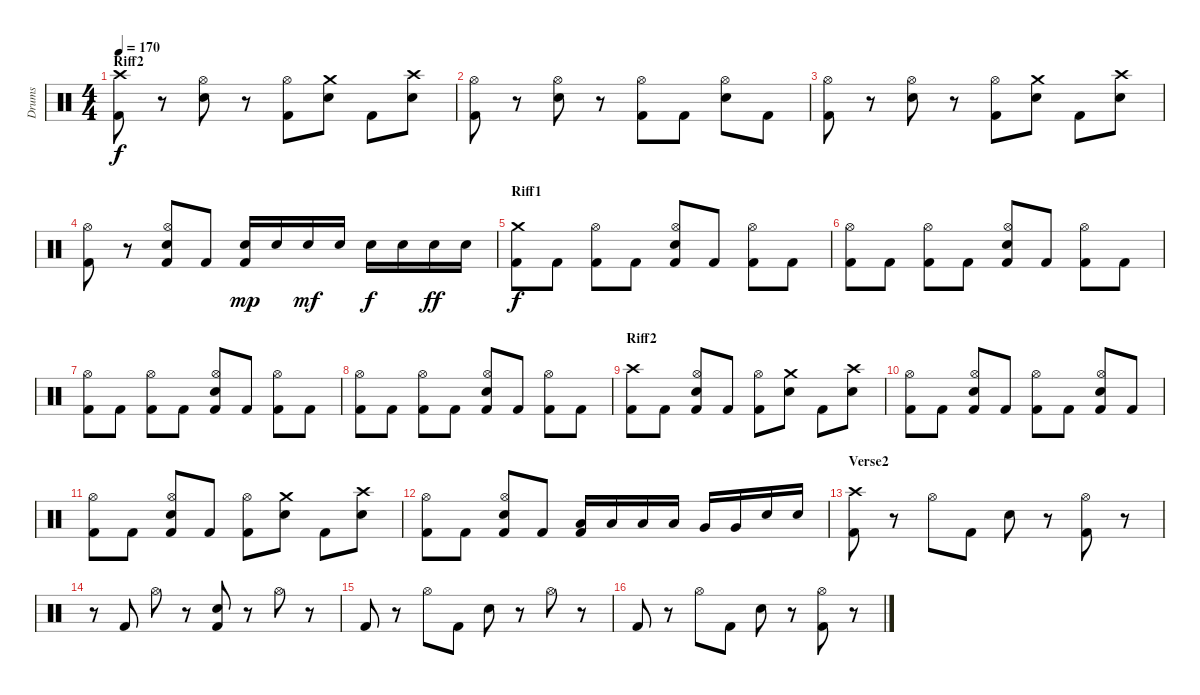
\track ("Drums" "Drums") {instrument percussion}
\staff {score}
\articulation defaults
\ts (4 4)
\section ("" "Riff2")
\tempo 170
\clef neutral
\ks c
("Kick (hit) 2" "Crash high (hit)").8{dy f} r.8 ("Hi-Hat (open)" "Electric Snare (hit)").8 r.8 ("Kick (hit) 2" "Hi-Hat (open)").8 ("Electric Snare (hit)" "Crash medium (hit)").8 "Kick (hit) 2".8 ("Electric Snare (hit)" "Crash high (hit)").8 |
("Kick (hit) 2" "Hi-Hat (open)").8 r.8 ("Hi-Hat (open)" "Electric Snare (hit)").8 r.8 ("Kick (hit) 2" "Hi-Hat (open)").8 "Kick (hit) 2".8 ("Hi-Hat (open)" "Electric Snare (hit)").8 "Kick (hit) 2".8 |
("Kick (hit) 2" "Hi-Hat (open)").8 r.8 ("Hi-Hat (open)" "Electric Snare (hit)").8 r.8 ("Kick (hit) 2" "Hi-Hat (open)").8 ("Electric Snare (hit)" "Crash medium (hit)").8 "Kick (hit) 2".8 ("Electric Snare (hit)" "Crash high (hit)").8 |
("Kick (hit) 2" "Hi-Hat (open)").8 r.8 ("Kick (hit) 2" "Hi-Hat (open)" "Electric Snare (hit)").8 "Kick (hit) 2".8 ("Kick (hit) 2" "Electric Snare (hit)").16{dy mp} "Electric Snare (hit)".16 "Electric Snare (hit)".16{dy mf} "Electric Snare (hit)".16 "Electric Snare (hit)".16{dy f} "Electric Snare (hit)".16 "Electric Snare (hit)".16{dy ff} "Electric Snare (hit)".16 |
\section ("" "Riff1")
("Kick (hit) 2" "Crash medium (hit)").8{dy f} "Kick (hit) 2".8 ("Kick (hit) 2" "Hi-Hat (open)").8 "Kick (hit) 2".8 ("Kick (hit) 2" "Hi-Hat (open)" "Electric Snare (hit)").8 "Kick (hit) 2".8 ("Kick (hit) 2" "Hi-Hat (open)").8 "Kick (hit) 2".8 |
("Kick (hit) 2" "Hi-Hat (open)").8 "Kick (hit) 2".8 ("Kick (hit) 2" "Hi-Hat (open)").8 "Kick (hit) 2".8 ("Kick (hit) 2" "Hi-Hat (open)" "Electric Snare (hit)").8 "Kick (hit) 2".8 ("Kick (hit) 2" "Hi-Hat (open)").8 "Kick (hit) 2".8 |
("Kick (hit) 2" "Hi-Hat (open)").8 "Kick (hit) 2".8 ("Kick (hit) 2" "Hi-Hat (open)").8 "Kick (hit) 2".8 ("Kick (hit) 2" "Hi-Hat (open)" "Electric Snare (hit)").8 "Kick (hit) 2".8 ("Kick (hit) 2" "Hi-Hat (open)").8 "Kick (hit) 2".8 |
("Kick (hit) 2" "Hi-Hat (open)").8 "Kick (hit) 2".8 ("Kick (hit) 2" "Hi-Hat (open)").8 "Kick (hit) 2".8 ("Kick (hit) 2" "Hi-Hat (open)" "Electric Snare (hit)").8 "Kick (hit) 2".8 ("Kick (hit) 2" "Hi-Hat (open)").8 "Kick (hit) 2".8 |
\section ("" "Riff2")
("Kick (hit) 2" "Crash high (hit)").8 "Kick (hit) 2".8 ("Kick (hit) 2" "Hi-Hat (open)" "Electric Snare (hit)").8 "Kick (hit) 2".8 ("Kick (hit) 2" "Hi-Hat (open)").8 ("Electric Snare (hit)" "Crash medium (hit)").8 "Kick (hit) 2".8 ("Electric Snare (hit)" "Crash high (hit)").8 |
("Kick (hit) 2" "Hi-Hat (open)").8 "Kick (hit) 2".8 ("Kick (hit) 2" "Hi-Hat (open)" "Electric Snare (hit)").8 "Kick (hit) 2".8 ("Kick (hit) 2" "Hi-Hat (open)").8 "Kick (hit) 2".8 ("Kick (hit) 2" "Hi-Hat (open)" "Electric Snare (hit)").8 "Kick (hit) 2".8 |
("Kick (hit) 2" "Hi-Hat (open)").8 "Kick (hit) 2".8 ("Kick (hit) 2" "Hi-Hat (open)" "Electric Snare (hit)").8 "Kick (hit) 2".8 ("Kick (hit) 2" "Hi-Hat (open)").8 ("Electric Snare (hit)" "Crash medium (hit)").8 "Kick (hit) 2".8 ("Electric Snare (hit)" "Crash high (hit)").8 |
("Kick (hit) 2" "Hi-Hat (open)").8 "Kick (hit) 2".8 ("Kick (hit) 2" "Hi-Hat (open)" "Electric Snare (hit)").8 "Kick (hit) 2".8 ("Kick (hit) 2" "Low Tom (hit)").16 "Low Tom (hit)".16 "Low Tom (hit)".16 "Low Tom (hit)".16 "Very Low Tom (hit)".16 "Very Low Tom (hit)".16 "Electric Snare (hit)".16 "Electric Snare (hit)".16 |
\section ("" "Verse2")
("Kick (hit) 2" "Crash high (hit)").8 r.8 "Hi-Hat (open)".8 "Kick (hit) 2".8 "Electric Snare (hit)".8 r.8 ("Kick (hit) 2" "Hi-Hat (open)").8 r.8 |
r.8 "Kick (hit) 2".8 "Hi-Hat (open)".8 r.8 ("Kick (hit) 2" "Electric Snare (hit)").8 r.8 "Hi-Hat (open)".8 r.8 |
"Kick (hit) 2".8 r.8 "Hi-Hat (open)".8 "Kick (hit) 2".8 "Electric Snare (hit)".8 r.8 "Hi-Hat (open)".8 r.8 |
"Kick (hit) 2".8 r.8 "Hi-Hat (open)".8 "Kick (hit) 2".8 "Electric Snare (hit)".8 r.8 ("Kick (hit) 2" "Hi-Hat (open)").8 r.8
